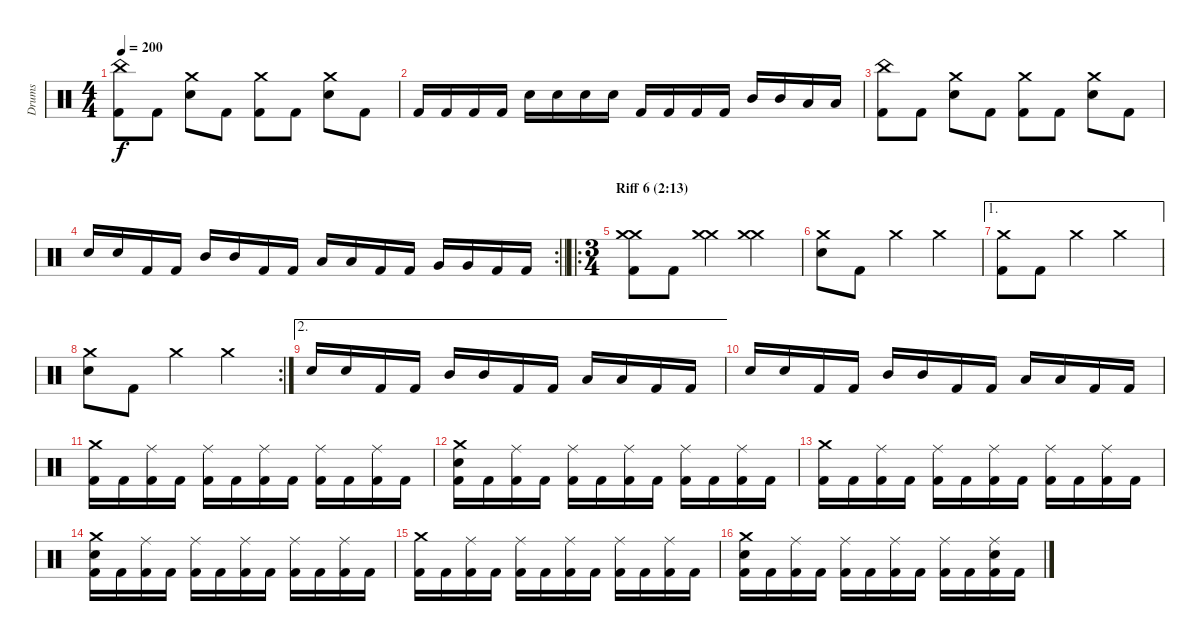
\track ("Drums" "Drums") {instrument percussion}
\staff {score}
\articulation defaults
\ts (4 4)
\tempo 200
\clef neutral
\ks c
("China (hit)" "Kick (hit) 2").8{dy f} "Kick (hit) 2".8 ("Crash medium (hit)" "Electric Snare (hit)").8 "Kick (hit) 2".8 ("Crash medium (hit)" "Kick (hit) 2").8 "Kick (hit) 2".8 ("Crash medium (hit)" "Electric Snare (hit)").8 "Kick (hit) 2".8 |
"Kick (hit) 2".16 "Kick (hit) 2".16 "Kick (hit) 2".16 "Kick (hit) 2".16 "Electric Snare (hit)".16 "Electric Snare (hit)".16 "Electric Snare (hit)".16 "Electric Snare (hit)".16 "Kick (hit) 2".16 "Kick (hit) 2".16 "Kick (hit) 2".16 "Kick (hit) 2".16 "Mid Tom (hit)".16 "Mid Tom (hit)".16 "Low Tom (hit)".16 "Low Tom (hit)".16 |
("China (hit)" "Kick (hit) 2").8 "Kick (hit) 2".8 ("Crash medium (hit)" "Electric Snare (hit)").8 "Kick (hit) 2".8 ("Crash medium (hit)" "Kick (hit) 2").8 "Kick (hit) 2".8 ("Crash medium (hit)" "Electric Snare (hit)").8 "Kick (hit) 2".8 |
\rc 2
\barLineRight lightlight "Electric Snare (hit)".16 "Electric Snare (hit)".16 "Kick (hit) 2".16 "Kick (hit) 2".16 "Mid Tom (hit)".16 "Mid Tom (hit)".16 "Kick (hit) 2".16 "Kick (hit) 2".16 "Low Tom (hit)".16 "Low Tom (hit)".16 "Kick (hit) 2".16 "Kick (hit) 2".16 "Very Low Tom (hit)".16 "Very Low Tom (hit)".16 "Kick (hit) 2".16 "Kick (hit) 2".16
|
\ro
\ts (3 4)
\section ("" "Riff 6 (2:13)")
("Crash medium (hit)" "Crash medium (hit)" "Kick (hit) 2").8 "Kick (hit) 2".8 ("Crash medium (hit)" "Crash medium (hit)").4 ("Crash medium (hit)" "Crash medium (hit)").4 |
("Crash medium (hit)" "Electric Snare (hit)").8 "Kick (hit) 2".8 "Crash medium (hit)".4 "Crash medium (hit)".4 |
\ae 1
("Crash medium (hit)" "Kick (hit) 2").8 "Kick (hit) 2".8 "Crash medium (hit)".4 "Crash medium (hit)".4 |
\rc 2
("Crash medium (hit)" "Electric Snare (hit)").8 "Kick (hit) 2".8 "Crash medium (hit)".4 "Crash medium (hit)".4 |
\ae 2 "Electric Snare (hit)".16 "Electric Snare (hit)".16 "Kick (hit) 2".16 "Kick (hit) 2".16 "Mid Tom (hit)".16 "Mid Tom (hit)".16 "Kick (hit) 2".16 "Kick (hit) 2".16 "Low Tom (hit)".16 "Low Tom (hit)".16 "Kick (hit) 2".16 "Kick (hit) 2".16
|
"Electric Snare (hit)".16 "Electric Snare (hit)".16 "Kick (hit) 2".16 "Kick (hit) 2".16 "Mid Tom (hit)".16 "Mid Tom (hit)".16 "Kick (hit) 2".16 "Kick (hit) 2".16 "Low Tom (hit)".16 "Low Tom (hit)".16 "Kick (hit) 2".16 "Kick (hit) 2".16 |
("Crash medium (hit)" "Kick (hit) 2").16 "Kick (hit) 2".16 ("Ride (middle)" "Kick (hit) 2").16 "Kick (hit) 2".16 ("Ride (middle)" "Kick (hit) 2").16 "Kick (hit) 2".16 ("Ride (middle)" "Kick (hit) 2").16 "Kick (hit) 2".16 ("Ride (middle)" "Kick (hit) 2").16 "Kick (hit) 2".16 ("Ride (middle)" "Kick (hit) 2").16 "Kick (hit) 2".16 |
("Crash medium (hit)" "Electric Snare (hit)" "Kick (hit) 2").16 "Kick (hit) 2".16 ("Ride (middle)" "Kick (hit) 2").16 "Kick (hit) 2".16 ("Ride (middle)" "Kick (hit) 2").16 "Kick (hit) 2".16 ("Ride (middle)" "Kick (hit) 2").16 "Kick (hit) 2".16 ("Ride (middle)" "Kick (hit) 2").16 "Kick (hit) 2".16 ("Ride (middle)" "Kick (hit) 2").16 "Kick (hit) 2".16 |
("Crash medium (hit)" "Kick (hit) 2").16 "Kick (hit) 2".16 ("Ride (middle)" "Kick (hit) 2").16 "Kick (hit) 2".16 ("Ride (middle)" "Kick (hit) 2").16 "Kick (hit) 2".16 ("Ride (middle)" "Kick (hit) 2").16 "Kick (hit) 2".16 ("Ride (middle)" "Kick (hit) 2").16 "Kick (hit) 2".16 ("Ride (middle)" "Kick (hit) 2").16 "Kick (hit) 2".16 |
("Crash medium (hit)" "Electric Snare (hit)" "Kick (hit) 2").16 "Kick (hit) 2".16 ("Ride (middle)" "Kick (hit) 2").16 "Kick (hit) 2".16 ("Ride (middle)" "Kick (hit) 2").16 "Kick (hit) 2".16 ("Ride (middle)" "Kick (hit) 2").16 "Kick (hit) 2".16 ("Ride (middle)" "Kick (hit) 2").16 "Kick (hit) 2".16 ("Ride (middle)" "Kick (hit) 2").16 "Kick (hit) 2".16 |
("Crash medium (hit)" "Kick (hit) 2").16 "Kick (hit) 2".16 ("Ride (middle)" "Kick (hit) 2").16 "Kick (hit) 2".16 ("Ride (middle)" "Kick (hit) 2").16 "Kick (hit) 2".16 ("Ride (middle)" "Kick (hit) 2").16 "Kick (hit) 2".16 ("Ride (middle)" "Kick (hit) 2").16 "Kick (hit) 2".16 ("Ride (middle)" "Kick (hit) 2").16 "Kick (hit) 2".16 |
("Crash medium (hit)" "Electric Snare (hit)" "Kick (hit) 2").16 "Kick (hit) 2".16 ("Ride (middle)" "Kick (hit) 2").16 "Kick (hit) 2".16 ("Ride (middle)" "Kick (hit) 2").16 "Kick (hit) 2".16 ("Ride (middle)" "Kick (hit) 2").16 "Kick (hit) 2".16 ("Ride (middle)" "Kick (hit) 2").16 "Kick (hit) 2".16 ("Ride (middle)" "Electric Snare (hit)" "Kick (hit) 2").16 "Kick (hit) 2".16
